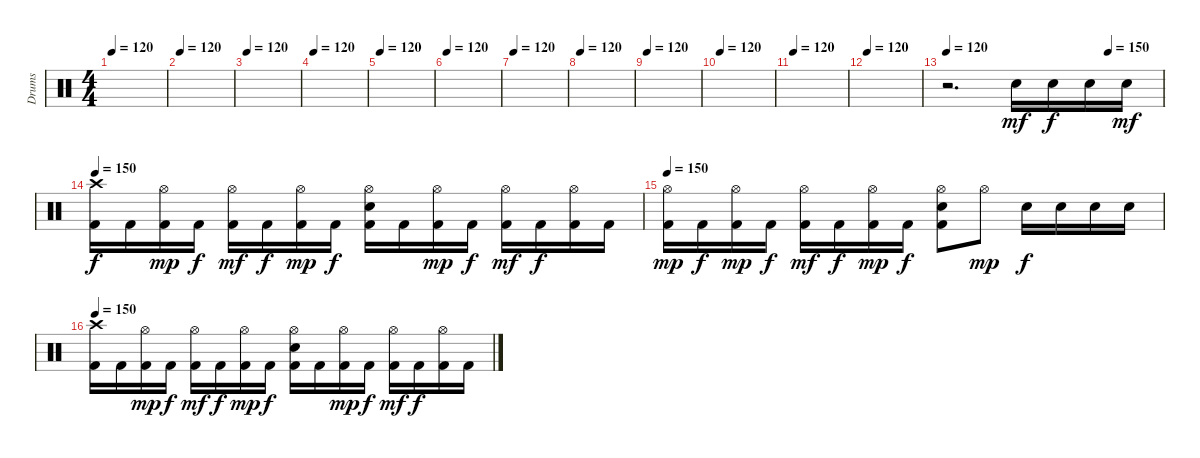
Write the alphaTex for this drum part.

\track ("Drums" "Drums") {instrument percussion}
\staff {score}
\articulation defaults
\ts (4 4)
\tempo 120
\clef neutral
\ks c
|
\tempo 120
|
\tempo 120
|
\tempo 120
|
\tempo 120
|
\tempo 120
|
\tempo 120
|
\tempo 120
|
\tempo 120
|
\tempo 120
|
\tempo 120
|
\tempo 120
|
\tempo 120
\tempo (150 0.75)
r.2{d} "Electric Snare (hit)".16{dy mf} "Electric Snare (hit)".16{dy f} "Electric Snare (hit)".16 "Electric Snare (hit)".16{dy mf} |
\tempo 150
("Crash high (hit)" "Kick (hit) 2").16{dy f} "Kick (hit) 2".16 ("Hi-Hat (open)" "Kick (hit) 2").16{dy mp} "Kick (hit) 2".16{dy f} ("Hi-Hat (open)" "Kick (hit) 2").16{dy mf} "Kick (hit) 2".16{dy f} ("Hi-Hat (open)" "Kick (hit) 2").16{dy mp} "Kick (hit) 2".16{dy f} ("Hi-Hat (open)" "Electric Snare (hit)" "Kick (hit) 2").16 "Kick (hit) 2".16 ("Hi-Hat (open)" "Kick (hit) 2").16{dy mp} "Kick (hit) 2".16{dy f} ("Hi-Hat (open)" "Kick (hit) 2").16{dy mf} "Kick (hit) 2".16{dy f} ("Hi-Hat (open)" "Kick (hit) 2").16 "Kick (hit) 2".16 |
\tempo 150
("Hi-Hat (open)" "Kick (hit) 2").16{dy mp} "Kick (hit) 2".16{dy f} ("Hi-Hat (open)" "Kick (hit) 2").16{dy mp} "Kick (hit) 2".16{dy f} ("Hi-Hat (open)" "Kick (hit) 2").16{dy mf} "Kick (hit) 2".16{dy f} ("Hi-Hat (open)" "Kick (hit) 2").16{dy mp} "Kick (hit) 2".16{dy f} ("Hi-Hat (open)" "Electric Snare (hit)" "Kick (hit) 2").8 "Hi-Hat (open)".8{dy mp} "Electric Snare (hit)".16{dy f} "Electric Snare (hit)".16 "Electric Snare (hit)".16 "Electric Snare (hit)".16 |
\tempo 150
("Crash high (hit)" "Kick (hit) 2").16 "Kick (hit) 2".16 ("Hi-Hat (open)" "Kick (hit) 2").16{dy mp} "Kick (hit) 2".16{dy f} ("Hi-Hat (open)" "Kick (hit) 2").16{dy mf} "Kick (hit) 2".16{dy f} ("Hi-Hat (open)" "Kick (hit) 2").16{dy mp} "Kick (hit) 2".16{dy f} ("Hi-Hat (open)" "Electric Snare (hit)" "Kick (hit) 2").16 "Kick (hit) 2".16 ("Hi-Hat (open)" "Kick (hit) 2").16{dy mp} "Kick (hit) 2".16{dy f} ("Hi-Hat (open)" "Kick (hit) 2").16{dy mf} "Kick (hit) 2".16{dy f} ("Hi-Hat (open)" "Kick (hit) 2").16 "Kick (hit) 2".16
